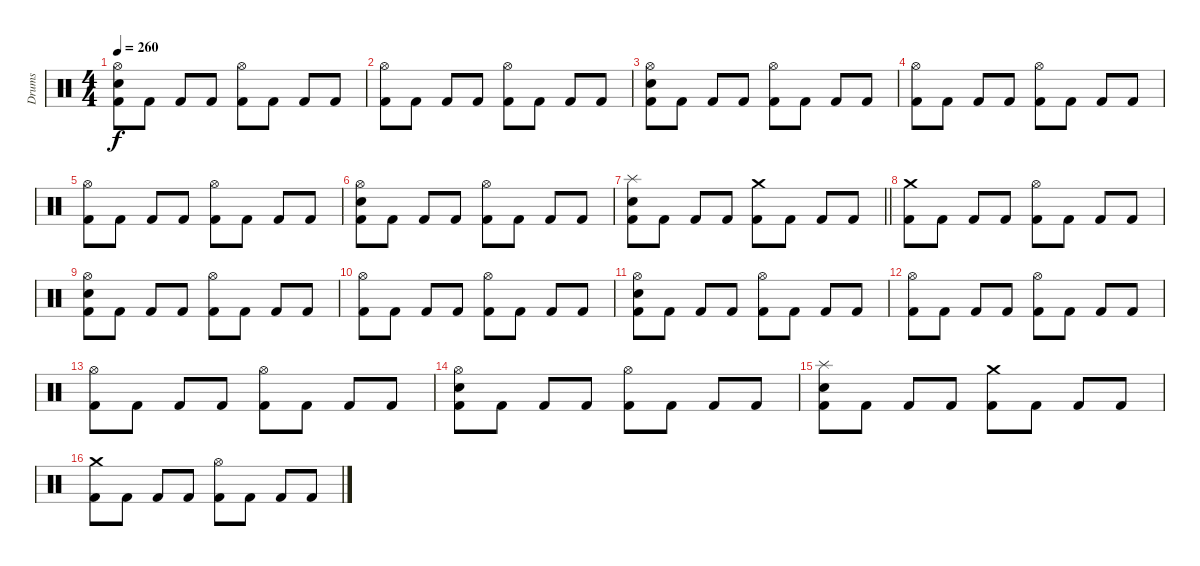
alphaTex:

\track ("Drums" "Drums") {instrument percussion}
\staff {score}
\articulation defaults
\ts (4 4)
\tempo 260
\clef neutral
\ks c
("Hi-Hat (open)" "Snare (hit) 2" "Kick (hit) 2").8{dy f} "Kick (hit) 2".8 "Kick (hit) 2".8 "Kick (hit) 2".8 ("Hi-Hat (open)" "Kick (hit) 2").8 "Kick (hit) 2".8 "Kick (hit) 2".8 "Kick (hit) 2".8 |
("Hi-Hat (open)" "Kick (hit) 2").8 "Kick (hit) 2".8 "Kick (hit) 2".8 "Kick (hit) 2".8 ("Hi-Hat (open)" "Kick (hit) 2").8 "Kick (hit) 2".8 "Kick (hit) 2".8 "Kick (hit) 2".8 |
("Hi-Hat (open)" "Snare (hit) 2" "Kick (hit) 2").8 "Kick (hit) 2".8 "Kick (hit) 2".8 "Kick (hit) 2".8 ("Hi-Hat (open)" "Kick (hit) 2").8 "Kick (hit) 2".8 "Kick (hit) 2".8 "Kick (hit) 2".8 |
("Hi-Hat (open)" "Kick (hit) 2").8 "Kick (hit) 2".8 "Kick (hit) 2".8 "Kick (hit) 2".8 ("Hi-Hat (open)" "Kick (hit) 2").8 "Kick (hit) 2".8 "Kick (hit) 2".8 "Kick (hit) 2".8 |
("Hi-Hat (open)" "Kick (hit) 2").8 "Kick (hit) 2".8 "Kick (hit) 2".8 "Kick (hit) 2".8 ("Hi-Hat (open)" "Kick (hit) 2").8 "Kick (hit) 2".8 "Kick (hit) 2".8 "Kick (hit) 2".8 |
("Hi-Hat (open)" "Snare (hit) 2" "Kick (hit) 2").8 "Kick (hit) 2".8 "Kick (hit) 2".8 "Kick (hit) 2".8 ("Hi-Hat (open)" "Kick (hit) 2").8 "Kick (hit) 2".8 "Kick (hit) 2".8 "Kick (hit) 2".8 |
\barLineRight lightlight
("Splash (hit)" "Snare (hit) 2" "Kick (hit) 2").8 "Kick (hit) 2".8 "Kick (hit) 2".8 "Kick (hit) 2".8 ("Crash medium (hit)" "Kick (hit) 2").8 "Kick (hit) 2".8 "Kick (hit) 2".8 "Kick (hit) 2".8 |
("Crash medium (hit)" "Kick (hit) 2").8{volume 10} "Kick (hit) 2".8 "Kick (hit) 2".8 "Kick (hit) 2".8 ("Hi-Hat (open)" "Kick (hit) 2").8 "Kick (hit) 2".8 "Kick (hit) 2".8 "Kick (hit) 2".8 |
("Hi-Hat (open)" "Snare (hit) 2" "Kick (hit) 2").8 "Kick (hit) 2".8 "Kick (hit) 2".8 "Kick (hit) 2".8 ("Hi-Hat (open)" "Kick (hit) 2").8 "Kick (hit) 2".8 "Kick (hit) 2".8 "Kick (hit) 2".8 |
("Hi-Hat (open)" "Kick (hit) 2").8 "Kick (hit) 2".8 "Kick (hit) 2".8 "Kick (hit) 2".8 ("Hi-Hat (open)" "Kick (hit) 2").8 "Kick (hit) 2".8 "Kick (hit) 2".8 "Kick (hit) 2".8 |
("Hi-Hat (open)" "Snare (hit) 2" "Kick (hit) 2").8 "Kick (hit) 2".8 "Kick (hit) 2".8 "Kick (hit) 2".8 ("Hi-Hat (open)" "Kick (hit) 2").8 "Kick (hit) 2".8 "Kick (hit) 2".8 "Kick (hit) 2".8 |
("Hi-Hat (open)" "Kick (hit) 2").8{volume 5} "Kick (hit) 2".8 "Kick (hit) 2".8 "Kick (hit) 2".8 ("Hi-Hat (open)" "Kick (hit) 2").8 "Kick (hit) 2".8 "Kick (hit) 2".8 "Kick (hit) 2".8 |
("Hi-Hat (open)" "Kick (hit) 2").8 "Kick (hit) 2".8 "Kick (hit) 2".8 "Kick (hit) 2".8 ("Hi-Hat (open)" "Kick (hit) 2").8 "Kick (hit) 2".8 "Kick (hit) 2".8 "Kick (hit) 2".8 |
("Hi-Hat (open)" "Snare (hit) 2" "Kick (hit) 2").8 "Kick (hit) 2".8 "Kick (hit) 2".8 "Kick (hit) 2".8 ("Hi-Hat (open)" "Kick (hit) 2").8 "Kick (hit) 2".8 "Kick (hit) 2".8 "Kick (hit) 2".8 |
("Splash (hit)" "Snare (hit) 2" "Kick (hit) 2").8 "Kick (hit) 2".8 "Kick (hit) 2".8 "Kick (hit) 2".8 ("Crash medium (hit)" "Kick (hit) 2").8 "Kick (hit) 2".8 "Kick (hit) 2".8 "Kick (hit) 2".8 |
("Crash medium (hit)" "Kick (hit) 2").8{volume 3} "Kick (hit) 2".8 "Kick (hit) 2".8 "Kick (hit) 2".8 ("Hi-Hat (open)" "Kick (hit) 2").8 "Kick (hit) 2".8 "Kick (hit) 2".8 "Kick (hit) 2".8
